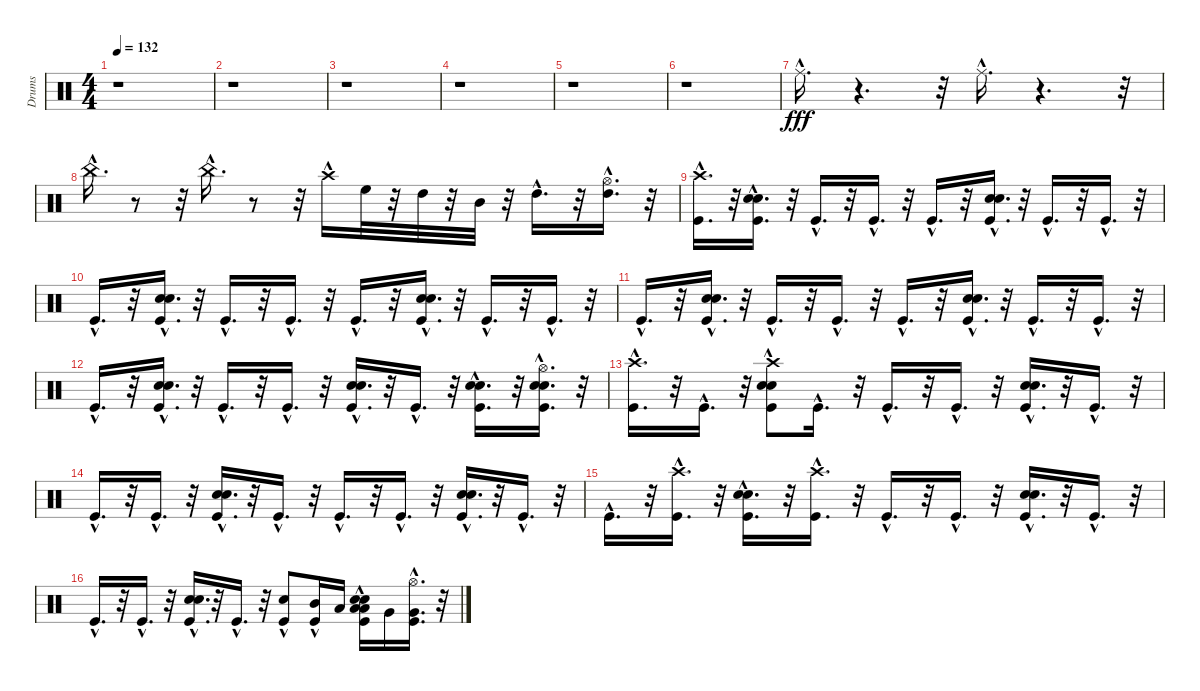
\track ("Drums" "Drums") {instrument percussion}
\staff {score}
\articulation defaults
\ts (4 4)
\tempo 132
\clef neutral
\ks c
r.1{dy fff} |
r.1 |
r.1 |
r.1 |
r.1 |
r.1 |
"Ride (middle)"{hac}.16{d} r.4{d} r.32 "Ride (middle)"{hac}.16{d} r.4{d} r.32 |
"China (hit)"{hac}.16{d} r.8 r.32 "China (hit)"{hac}.16{d} r.8 r.32 "Crash high (hit)"{hac}.16 "High Floor Tom (hit)".32 r.32 "High Tom (hit)".32 r.32 "Mid Tom (hit)".32 r.32 "High Tom (hit)"{hac}.16{d} r.32 ("High Tom (hit)"{hac} "Hi-Hat (open)"{hac}).16{d} r.32 |
("Kick (hit)"{hac} "Crash high (hit)"{hac}).16{d} r.32 ("Kick (hit)"{hac} "Snare (hit) 2"{hac} "Electric Snare (hit)"{hac}).16{d} r.32 "Kick (hit)"{hac}.16{d} r.32 "Kick (hit)"{hac}.16{d} r.32 "Kick (hit)"{hac}.16{d} r.32 ("Kick (hit)"{hac} "Snare (hit) 2"{hac} "Electric Snare (hit)"{hac}).16{d} r.32 "Kick (hit)"{hac}.16{d} r.32 "Kick (hit)"{hac}.16{d} r.32 |
"Kick (hit)"{hac}.16{d} r.32 ("Kick (hit)"{hac} "Snare (hit) 2"{hac} "Electric Snare (hit)"{hac}).16{d} r.32 "Kick (hit)"{hac}.16{d} r.32 "Kick (hit)"{hac}.16{d} r.32 "Kick (hit)"{hac}.16{d} r.32 ("Kick (hit)"{hac} "Snare (hit) 2"{hac} "Electric Snare (hit)"{hac}).16{d} r.32 "Kick (hit)"{hac}.16{d} r.32 "Kick (hit)"{hac}.16{d} r.32 |
"Kick (hit)"{hac}.16{d} r.32 ("Kick (hit)"{hac} "Snare (hit) 2"{hac} "Electric Snare (hit)"{hac}).16{d} r.32 "Kick (hit)"{hac}.16{d} r.32 "Kick (hit)"{hac}.16{d} r.32 "Kick (hit)"{hac}.16{d} r.32 ("Kick (hit)"{hac} "Snare (hit) 2"{hac} "Electric Snare (hit)"{hac}).16{d} r.32 "Kick (hit)"{hac}.16{d} r.32 "Kick (hit)"{hac}.16{d} r.32 |
"Kick (hit)"{hac}.16{d} r.32 ("Kick (hit)"{hac} "Snare (hit) 2"{hac} "Electric Snare (hit)"{hac}).16{d} r.32 "Kick (hit)"{hac}.16{d} r.32 "Kick (hit)"{hac}.16{d} r.32 ("Kick (hit)"{hac} "Snare (hit) 2"{hac} "Electric Snare (hit)"{hac}).16{d} r.32 "Kick (hit)"{hac}.16{d} r.32 ("Kick (hit)"{hac} "Snare (hit) 2"{hac} "Electric Snare (hit)"{hac}).16{d} r.32 ("Kick (hit)"{hac} "Snare (hit) 2"{hac} "Electric Snare (hit)"{hac} "Hi-Hat (open)"{hac}).16{d} r.32 |
("Crash high (hit)"{hac} "Kick (hit)"{hac}).16{d} r.32 "Kick (hit)"{hac}.16{d} r.32 ("Crash high (hit)"{hac} "Kick (hit)"{hac} "Snare (hit) 2" "Electric Snare (hit)").8 "Kick (hit)"{hac}.16{d} r.32 "Kick (hit)"{hac}.16{d} r.32 "Kick (hit)"{hac}.16{d} r.32 ("Kick (hit)"{hac} "Snare (hit) 2"{hac} "Electric Snare (hit)"{hac}).16{d} r.32 "Kick (hit)"{hac}.16{d} r.32 |
"Kick (hit)"{hac}.16{d} r.32 "Kick (hit)"{hac}.16{d} r.32 ("Kick (hit)"{hac} "Snare (hit) 2"{hac} "Electric Snare (hit)"{hac}).16{d} r.32 "Kick (hit)"{hac}.16{d} r.32 "Kick (hit)"{hac}.16{d} r.32 "Kick (hit)"{hac}.16{d} r.32 ("Kick (hit)"{hac} "Snare (hit) 2"{hac} "Electric Snare (hit)"{hac}).16{d} r.32 "Kick (hit)"{hac}.16{d} r.32 |
"Kick (hit)"{hac}.16{d} r.32 ("Kick (hit)"{hac} "Crash high (hit)"{hac}).16{d} r.32 ("Kick (hit)"{hac} "Snare (hit) 2"{hac} "Electric Snare (hit)"{hac}).16{d} r.32 ("Kick (hit)"{hac} "Crash high (hit)"{hac}).16{d} r.32 "Kick (hit)"{hac}.16{d} r.32 "Kick (hit)"{hac}.16{d} r.32 ("Kick (hit)"{hac} "Snare (hit) 2"{hac} "Electric Snare (hit)"{hac}).16{d} r.32 "Kick (hit)"{hac}.16{d} r.32 |
"Kick (hit)"{hac}.16{d} r.32 "Kick (hit)"{hac}.16{d} r.32 ("Kick (hit)"{hac} "Snare (hit) 2"{hac} "Electric Snare (hit)"{hac}).16{d} r.32 "Kick (hit)"{hac}.16{d} r.32 ("Kick (hit)"{hac} "Snare (hit) 2").8 ("Kick (hit)"{hac} "Mid Tom (hit)").16 "Low Tom (hit)".16 ("Kick (hit)"{hac} "Snare (hit) 2"{hac} "Electric Snare (hit)"{hac} "Low Tom (hit)" "Low Floor Tom (hit)").16 "Very Low Tom (hit)".16 ("Kick (hit)"{hac} "Hi-Hat (open)"{hac} "Very Low Tom (hit)"{hac}).16{d} r.32
